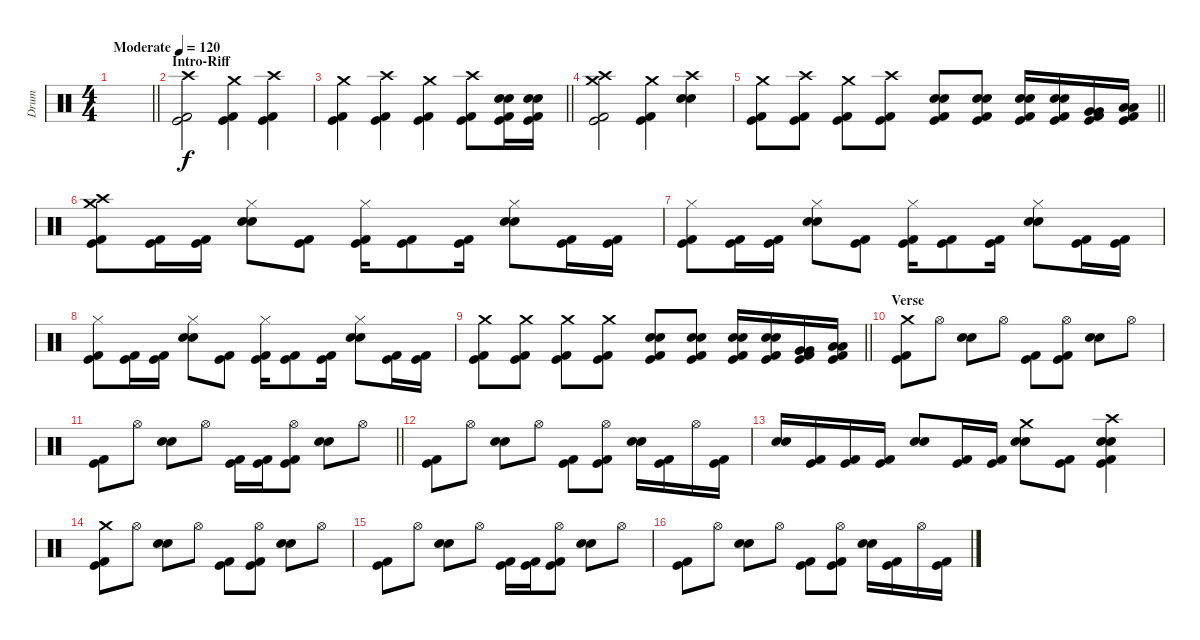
\track ("Drum" "Drum") {instrument percussion}
\staff
\articulation defaults
\ts (4 4)
\tempo (120 "Moderate")
\clef neutral
\barLineRight lightlight
\ks c
|
\section ("" "Intro-Riff")
("Crash high (hit)" "Kick (hit)" "Kick (hit) 2").2 ("Crash medium (hit)" "Kick (hit)" "Kick (hit) 2").4 ("Crash high (hit)" "Kick (hit)" "Kick (hit) 2").4 |
\barLineRight lightlight
("Crash medium (hit)" "Kick (hit)" "Kick (hit) 2").4 ("Crash high (hit)" "Kick (hit)" "Kick (hit) 2").4 ("Crash medium (hit)" "Kick (hit)" "Kick (hit) 2").4 ("Crash high (hit)" "Kick (hit)" "Kick (hit) 2").8 ("Snare (hit) 2" "Electric Snare (hit)" "Kick (hit)" "Kick (hit) 2").16 ("Snare (hit) 2" "Electric Snare (hit)" "Kick (hit)" "Kick (hit) 2").16 |
("Crash medium (hit)" "Crash high (hit)" "Kick (hit)" "Kick (hit) 2").2 ("Crash medium (hit)" "Kick (hit)" "Kick (hit) 2").4 ("Crash high (hit)" "Snare (hit) 2" "Electric Snare (hit)").4 |
\barLineRight lightlight
("Crash medium (hit)" "Kick (hit)" "Kick (hit) 2").8 ("Crash high (hit)" "Kick (hit)" "Kick (hit) 2").8 ("Crash medium (hit)" "Kick (hit)" "Kick (hit) 2").8 ("Crash high (hit)" "Kick (hit)" "Kick (hit) 2").8 ("Electric Snare (hit)" "Snare (hit) 2" "Kick (hit)" "Kick (hit) 2").8 ("Electric Snare (hit)" "Snare (hit) 2" "Kick (hit)" "Kick (hit) 2").8 ("Electric Snare (hit)" "Snare (hit) 2" "Kick (hit)" "Kick (hit) 2").16 ("Electric Snare (hit)" "Snare (hit) 2" "Kick (hit)" "Kick (hit) 2").16 ("Very Low Tom (hit)" "Very Low Tom (hit)" "Kick (hit)" "Kick (hit) 2").16 ("Low Floor Tom (hit)" "Low Floor Tom (hit)" "Kick (hit)" "Kick (hit) 2").16 |
("Crash high (hit)" "Crash medium (hit)" "Kick (hit) 2" "Kick (hit)").8 ("Kick (hit) 2" "Kick (hit)").16 ("Kick (hit) 2" "Kick (hit)").16 ("Hi-Hat (closed)" "Snare (hit) 2" "Electric Snare (hit)").8 ("Kick (hit) 2" "Kick (hit)").8 ("Hi-Hat (closed)" "Kick (hit) 2" "Kick (hit)").16 ("Kick (hit) 2" "Kick (hit)").8 ("Kick (hit) 2" "Kick (hit)").16 ("Hi-Hat (closed)" "Snare (hit) 2" "Electric Snare (hit)").8 ("Kick (hit) 2" "Kick (hit)").16 ("Kick (hit) 2" "Kick (hit)").16 |
("Hi-Hat (closed)" "Kick (hit) 2" "Kick (hit)").8 ("Kick (hit) 2" "Kick (hit)").16 ("Kick (hit) 2" "Kick (hit)").16 ("Hi-Hat (closed)" "Snare (hit) 2" "Electric Snare (hit)").8 ("Kick (hit) 2" "Kick (hit)").8 ("Hi-Hat (closed)" "Kick (hit) 2" "Kick (hit)").16 ("Kick (hit) 2" "Kick (hit)").8 ("Kick (hit) 2" "Kick (hit)").16 ("Hi-Hat (closed)" "Snare (hit) 2" "Electric Snare (hit)").8 ("Kick (hit) 2" "Kick (hit)").16 ("Kick (hit) 2" "Kick (hit)").16 |
("Hi-Hat (closed)" "Kick (hit) 2" "Kick (hit)").8 ("Kick (hit) 2" "Kick (hit)").16 ("Kick (hit) 2" "Kick (hit)").16 ("Hi-Hat (closed)" "Snare (hit) 2" "Electric Snare (hit)").8 ("Kick (hit) 2" "Kick (hit)").8 ("Hi-Hat (closed)" "Kick (hit) 2" "Kick (hit)").16 ("Kick (hit) 2" "Kick (hit)").8 ("Kick (hit) 2" "Kick (hit)").16 ("Hi-Hat (closed)" "Snare (hit) 2" "Electric Snare (hit)").8 ("Kick (hit) 2" "Kick (hit)").16 ("Kick (hit) 2" "Kick (hit)").16 |
\barLineRight lightlight
("Crash medium (hit)" "Kick (hit)" "Kick (hit) 2").8 ("Crash medium (hit)" "Kick (hit)" "Kick (hit) 2").8 ("Crash medium (hit)" "Kick (hit)" "Kick (hit) 2").8 ("Crash medium (hit)" "Kick (hit)" "Kick (hit) 2").8 ("Electric Snare (hit)" "Snare (hit) 2" "Kick (hit)" "Kick (hit) 2").8 ("Electric Snare (hit)" "Snare (hit) 2" "Kick (hit)" "Kick (hit) 2").8 ("Electric Snare (hit)" "Snare (hit) 2" "Kick (hit)" "Kick (hit) 2").16 ("Electric Snare (hit)" "Snare (hit) 2" "Kick (hit)" "Kick (hit) 2").16 ("Very Low Tom (hit)" "Very Low Tom (hit)" "Kick (hit)" "Kick (hit) 2").16 ("Low Floor Tom (hit)" "Low Floor Tom (hit)" "Kick (hit)" "Kick (hit) 2").16 |
\section ("" "Verse")
("Crash medium (hit)" "Kick (hit) 2" "Kick (hit)").8 "Hi-Hat (open)".8 ("Electric Snare (hit)" "Snare (hit) 2").8 "Hi-Hat (open)".8 ("Kick (hit) 2" "Kick (hit)").8 ("Hi-Hat (open)" "Kick (hit) 2" "Kick (hit)").8 ("Electric Snare (hit)" "Snare (hit) 2").8 "Hi-Hat (open)".8 |
\barLineRight lightlight
("Kick (hit) 2" "Kick (hit)").8 "Hi-Hat (open)".8 ("Electric Snare (hit)" "Snare (hit) 2").8 "Hi-Hat (open)".8 ("Kick (hit) 2" "Kick (hit)").16 ("Kick (hit) 2" "Kick (hit)").16 ("Hi-Hat (open)" "Kick (hit) 2" "Kick (hit)").8 ("Electric Snare (hit)" "Snare (hit) 2").8 "Hi-Hat (open)".8 |
("Kick (hit) 2" "Kick (hit)").8 "Hi-Hat (open)".8 ("Electric Snare (hit)" "Snare (hit) 2").8 "Hi-Hat (open)".8 ("Kick (hit) 2" "Kick (hit)").8 ("Hi-Hat (open)" "Kick (hit) 2" "Kick (hit)").8 ("Electric Snare (hit)" "Snare (hit) 2").16 ("Kick (hit) 2" "Kick (hit)").16 "Hi-Hat (open)".16 ("Kick (hit) 2" "Kick (hit)").16 |
("Snare (hit) 2" "Electric Snare (hit)").16 ("Kick (hit) 2" "Kick (hit)").16 ("Kick (hit) 2" "Kick (hit)").16 ("Kick (hit) 2" "Kick (hit)").16 ("Snare (hit) 2" "Electric Snare (hit)").8 ("Kick (hit) 2" "Kick (hit)").16 ("Kick (hit) 2" "Kick (hit)").16 ("Crash medium (hit)" "Snare (hit) 2" "Electric Snare (hit)").8 ("Kick (hit) 2" "Kick (hit)").8 ("Crash high (hit)" "Snare (hit) 2" "Electric Snare (hit)" "Kick (hit) 2" "Kick (hit)").4 |
("Crash medium (hit)" "Kick (hit) 2" "Kick (hit)").8 "Hi-Hat (open)".8 ("Electric Snare (hit)" "Snare (hit) 2").8 "Hi-Hat (open)".8 ("Kick (hit) 2" "Kick (hit)").8 ("Hi-Hat (open)" "Kick (hit) 2" "Kick (hit)").8 ("Electric Snare (hit)" "Snare (hit) 2").8 "Hi-Hat (open)".8 |
("Kick (hit) 2" "Kick (hit)").8 "Hi-Hat (open)".8 ("Electric Snare (hit)" "Snare (hit) 2").8 "Hi-Hat (open)".8 ("Kick (hit) 2" "Kick (hit)").16 ("Kick (hit) 2" "Kick (hit)").16 ("Hi-Hat (open)" "Kick (hit) 2" "Kick (hit)").8 ("Electric Snare (hit)" "Snare (hit) 2").8 "Hi-Hat (open)".8 |
("Kick (hit) 2" "Kick (hit)").8 "Hi-Hat (open)".8 ("Electric Snare (hit)" "Snare (hit) 2").8 "Hi-Hat (open)".8 ("Kick (hit) 2" "Kick (hit)").8 ("Hi-Hat (open)" "Kick (hit) 2" "Kick (hit)").8 ("Electric Snare (hit)" "Snare (hit) 2").16 ("Kick (hit) 2" "Kick (hit)").16 "Hi-Hat (open)".16 ("Kick (hit) 2" "Kick (hit)").16
